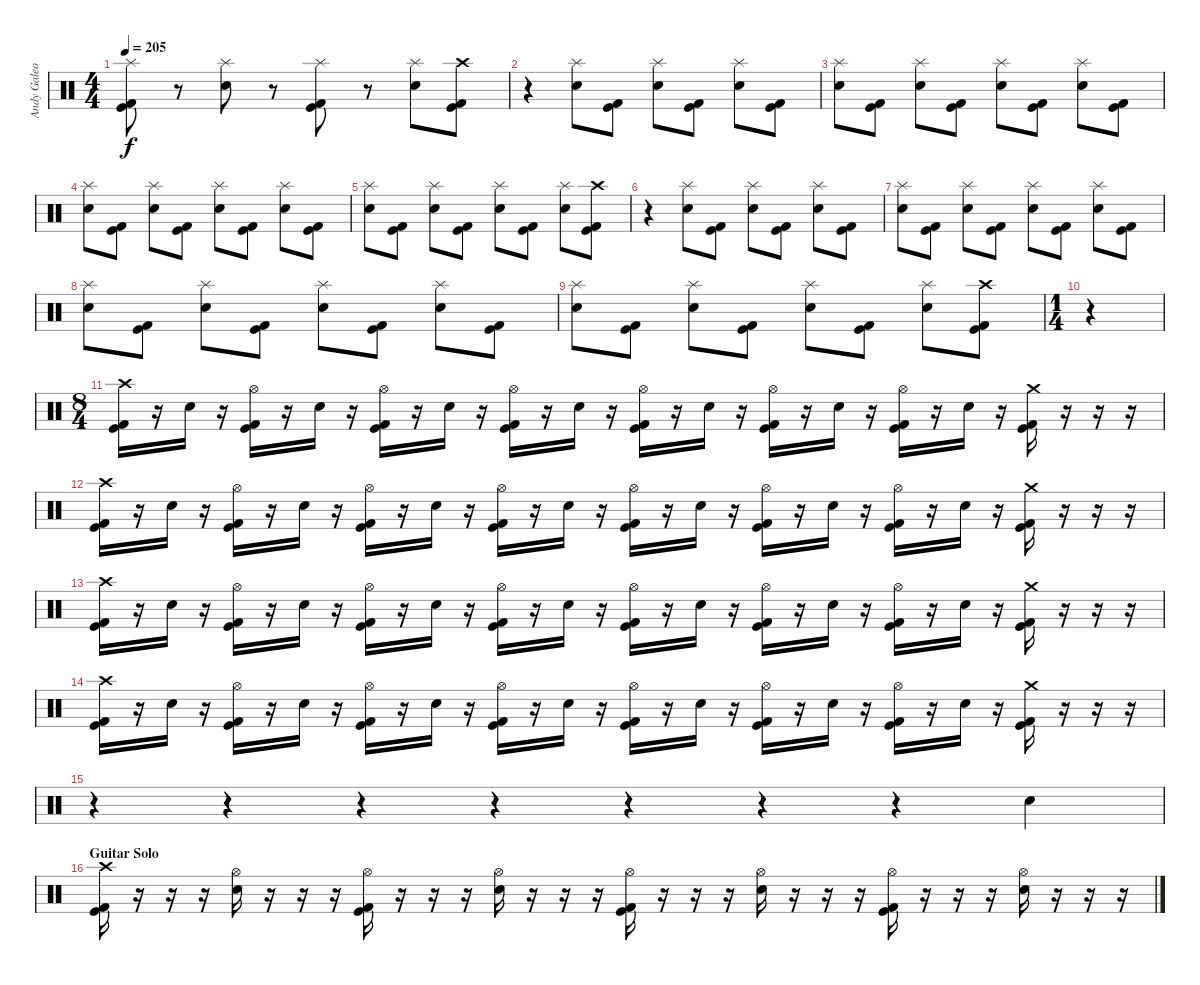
\track ("Andy Galeon - Drums" "Andy Galeo") {instrument percussion}
\staff {score}
\articulation defaults
\ts (4 4)
\tempo 205
\clef neutral
\ks c
("Splash (hit)" "Kick (hit) 2" "Kick (hit)").8{dy f} r.8 ("Splash (hit)" "Electric Snare (hit)").8 r.8 ("Splash (hit)" "Kick (hit) 2" "Kick (hit)").8 r.8 ("Splash (hit)" "Electric Snare (hit)").8 ("Crash high (hit)" "Kick (hit)" "Kick (hit) 2").8 |
r.4 ("Splash (hit)" "Electric Snare (hit)").8 ("Kick (hit) 2" "Kick (hit)").8 ("Splash (hit)" "Electric Snare (hit)").8 ("Kick (hit) 2" "Kick (hit)").8 ("Splash (hit)" "Electric Snare (hit)").8 ("Kick (hit) 2" "Kick (hit)").8 |
("Splash (hit)" "Electric Snare (hit)").8 ("Kick (hit) 2" "Kick (hit)").8 ("Splash (hit)" "Electric Snare (hit)").8 ("Kick (hit) 2" "Kick (hit)").8 ("Splash (hit)" "Electric Snare (hit)").8 ("Kick (hit)" "Kick (hit) 2").8 ("Splash (hit)" "Electric Snare (hit)").8 ("Kick (hit)" "Kick (hit) 2").8 |
("Splash (hit)" "Electric Snare (hit)").8 ("Kick (hit) 2" "Kick (hit)").8 ("Splash (hit)" "Electric Snare (hit)").8 ("Kick (hit) 2" "Kick (hit)").8 ("Splash (hit)" "Electric Snare (hit)").8 ("Kick (hit)" "Kick (hit) 2").8 ("Splash (hit)" "Electric Snare (hit)").8 ("Kick (hit)" "Kick (hit) 2").8 |
("Splash (hit)" "Electric Snare (hit)").8 ("Kick (hit) 2" "Kick (hit)").8 ("Splash (hit)" "Electric Snare (hit)").8 ("Kick (hit) 2" "Kick (hit)").8 ("Splash (hit)" "Electric Snare (hit)").8 ("Kick (hit)" "Kick (hit) 2").8 ("Splash (hit)" "Electric Snare (hit)").8 ("Crash high (hit)" "Kick (hit)" "Kick (hit) 2").8 |
r.4 ("Splash (hit)" "Electric Snare (hit)").8 ("Kick (hit) 2" "Kick (hit)").8 ("Splash (hit)" "Electric Snare (hit)").8 ("Kick (hit) 2" "Kick (hit)").8 ("Splash (hit)" "Electric Snare (hit)").8 ("Kick (hit) 2" "Kick (hit)").8 |
("Splash (hit)" "Electric Snare (hit)").8 ("Kick (hit) 2" "Kick (hit)").8 ("Splash (hit)" "Electric Snare (hit)").8 ("Kick (hit) 2" "Kick (hit)").8 ("Splash (hit)" "Electric Snare (hit)").8 ("Kick (hit)" "Kick (hit) 2").8 ("Splash (hit)" "Electric Snare (hit)").8 ("Kick (hit)" "Kick (hit) 2").8 |
("Splash (hit)" "Electric Snare (hit)").8 ("Kick (hit) 2" "Kick (hit)").8 ("Splash (hit)" "Electric Snare (hit)").8 ("Kick (hit) 2" "Kick (hit)").8 ("Splash (hit)" "Electric Snare (hit)").8 ("Kick (hit)" "Kick (hit) 2").8 ("Splash (hit)" "Electric Snare (hit)").8 ("Kick (hit)" "Kick (hit) 2").8 |
("Splash (hit)" "Electric Snare (hit)").8 ("Kick (hit) 2" "Kick (hit)").8 ("Splash (hit)" "Electric Snare (hit)").8 ("Kick (hit) 2" "Kick (hit)").8 ("Splash (hit)" "Electric Snare (hit)").8 ("Kick (hit)" "Kick (hit) 2").8 ("Splash (hit)" "Electric Snare (hit)").8 ("Crash high (hit)" "Kick (hit)" "Kick (hit) 2").8 |
\ts (1 4)
r.4 |
\ts (8 4)
("Crash high (hit)" "Kick (hit) 2" "Kick (hit)").16 r.16 "Electric Snare (hit)".16 r.16 ("Hi-Hat (open)" "Kick (hit) 2" "Kick (hit)").16 r.16 "Electric Snare (hit)".16 r.16 ("Hi-Hat (open)" "Kick (hit) 2" "Kick (hit)").16 r.16 "Electric Snare (hit)".16 r.16 ("Hi-Hat (open)" "Kick (hit) 2" "Kick (hit)").16 r.16 "Electric Snare (hit)".16 r.16 ("Hi-Hat (open)" "Kick (hit) 2" "Kick (hit)").16 r.16 "Electric Snare (hit)".16 r.16 ("Hi-Hat (open)" "Kick (hit) 2" "Kick (hit)").16 r.16 "Electric Snare (hit)".16 r.16 ("Hi-Hat (open)" "Kick (hit) 2" "Kick (hit)").16 r.16 "Electric Snare (hit)".16 r.16 ("Crash medium (hit)" "Kick (hit)" "Kick (hit) 2").16 r.16 r.16 r.16 |
("Crash high (hit)" "Kick (hit) 2" "Kick (hit)").16 r.16 "Electric Snare (hit)".16 r.16 ("Hi-Hat (open)" "Kick (hit) 2" "Kick (hit)").16 r.16 "Electric Snare (hit)".16 r.16 ("Hi-Hat (open)" "Kick (hit) 2" "Kick (hit)").16 r.16 "Electric Snare (hit)".16 r.16 ("Hi-Hat (open)" "Kick (hit) 2" "Kick (hit)").16 r.16 "Electric Snare (hit)".16 r.16 ("Hi-Hat (open)" "Kick (hit) 2" "Kick (hit)").16 r.16 "Electric Snare (hit)".16 r.16 ("Hi-Hat (open)" "Kick (hit) 2" "Kick (hit)").16 r.16 "Electric Snare (hit)".16 r.16 ("Hi-Hat (open)" "Kick (hit) 2" "Kick (hit)").16 r.16 "Electric Snare (hit)".16 r.16 ("Crash medium (hit)" "Kick (hit)" "Kick (hit) 2").16 r.16 r.16 r.16 |
("Crash high (hit)" "Kick (hit) 2" "Kick (hit)").16 r.16 "Electric Snare (hit)".16 r.16 ("Hi-Hat (open)" "Kick (hit) 2" "Kick (hit)").16 r.16 "Electric Snare (hit)".16 r.16 ("Hi-Hat (open)" "Kick (hit) 2" "Kick (hit)").16 r.16 "Electric Snare (hit)".16 r.16 ("Hi-Hat (open)" "Kick (hit) 2" "Kick (hit)").16 r.16 "Electric Snare (hit)".16 r.16 ("Hi-Hat (open)" "Kick (hit) 2" "Kick (hit)").16 r.16 "Electric Snare (hit)".16 r.16 ("Hi-Hat (open)" "Kick (hit) 2" "Kick (hit)").16 r.16 "Electric Snare (hit)".16 r.16 ("Hi-Hat (open)" "Kick (hit) 2" "Kick (hit)").16 r.16 "Electric Snare (hit)".16 r.16 ("Crash medium (hit)" "Kick (hit)" "Kick (hit) 2").16 r.16 r.16 r.16 |
("Crash high (hit)" "Kick (hit) 2" "Kick (hit)").16 r.16 "Electric Snare (hit)".16 r.16 ("Hi-Hat (open)" "Kick (hit) 2" "Kick (hit)").16 r.16 "Electric Snare (hit)".16 r.16 ("Hi-Hat (open)" "Kick (hit) 2" "Kick (hit)").16 r.16 "Electric Snare (hit)".16 r.16 ("Hi-Hat (open)" "Kick (hit) 2" "Kick (hit)").16 r.16 "Electric Snare (hit)".16 r.16 ("Hi-Hat (open)" "Kick (hit) 2" "Kick (hit)").16 r.16 "Electric Snare (hit)".16 r.16 ("Hi-Hat (open)" "Kick (hit) 2" "Kick (hit)").16 r.16 "Electric Snare (hit)".16 r.16 ("Hi-Hat (open)" "Kick (hit) 2" "Kick (hit)").16 r.16 "Electric Snare (hit)".16 r.16 ("Crash medium (hit)" "Kick (hit)" "Kick (hit) 2").16 r.16 r.16 r.16 |
r.4 r.4 r.4 r.4 r.4 r.4 r.4 "Electric Snare (hit)".4 |
\section ("" "Guitar Solo")
("Crash high (hit)" "Kick (hit) 2" "Kick (hit)").16 r.16 r.16 r.16 ("Hi-Hat (open)" "Electric Snare (hit)").16 r.16 r.16 r.16 ("Hi-Hat (open)" "Kick (hit) 2" "Kick (hit)").16 r.16 r.16 r.16 ("Hi-Hat (open)" "Electric Snare (hit)").16 r.16 r.16 r.16 ("Hi-Hat (open)" "Kick (hit) 2" "Kick (hit)").16 r.16 r.16 r.16 ("Hi-Hat (open)" "Electric Snare (hit)").16 r.16 r.16 r.16 ("Hi-Hat (open)" "Kick (hit) 2" "Kick (hit)").16 r.16 r.16 r.16 ("Hi-Hat (open)" "Electric Snare (hit)").16 r.16 r.16 r.16
